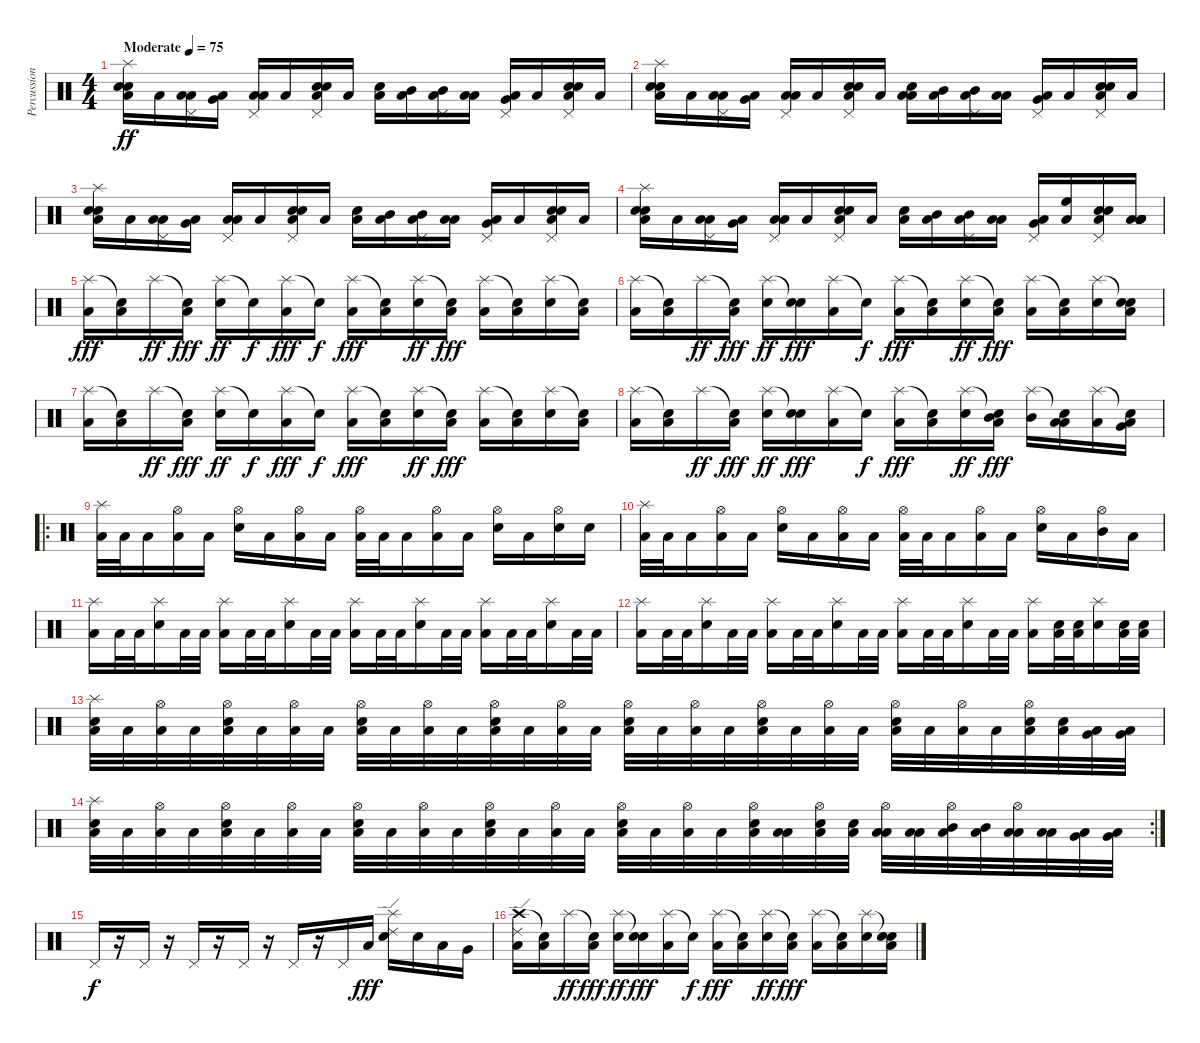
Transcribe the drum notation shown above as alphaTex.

\track ("Percussion" "Percussion") {instrument percussion}
\staff {score}
\articulation defaults
\ts (4 4)
\tempo (75 "Moderate")
\clef neutral
\ks c
("Splash (hit)" "Snare (hit) 2" "Snare (hit) 2" "Low Floor Tom (hit)").16{dy ff} "Low Floor Tom (hit)".16 ("Pedal Hi-Hat (hit)" "Low Tom (hit)" "Low Floor Tom (hit)").16 ("Very Low Tom (hit)" "Low Floor Tom (hit)").16 ("Pedal Hi-Hat (hit)" "Low Tom (hit)" "Low Floor Tom (hit)").16 "Low Floor Tom (hit)".16 ("Pedal Hi-Hat (hit)" "Snare (hit) 2" "Snare (hit) 2" "Low Floor Tom (hit)").16 "Low Floor Tom (hit)".16 ("Snare (hit)" "Low Floor Tom (hit)").16 ("Mid Tom (hit)" "Low Floor Tom (hit)").16 ("Pedal Hi-Hat (hit)" "Mid Tom (hit)" "Low Floor Tom (hit)").16 ("Low Tom (hit)" "Low Floor Tom (hit)").16 ("Pedal Hi-Hat (hit)" "Very Low Tom (hit)" "Low Floor Tom (hit)").16 "Low Floor Tom (hit)".16 ("Pedal Hi-Hat (hit)" "Snare (hit) 2" "Snare (hit) 2" "Low Floor Tom (hit)").16 "Low Floor Tom (hit)".16 |
("Splash (hit)" "Snare (hit) 2" "Snare (hit) 2" "Low Floor Tom (hit)").16 "Low Floor Tom (hit)".16 ("Pedal Hi-Hat (hit)" "Low Tom (hit)" "Low Floor Tom (hit)").16 ("Very Low Tom (hit)" "Low Floor Tom (hit)").16 ("Pedal Hi-Hat (hit)" "Low Tom (hit)" "Low Floor Tom (hit)").16 "Low Floor Tom (hit)".16 ("Pedal Hi-Hat (hit)" "Snare (hit) 2" "Snare (hit) 2" "Low Floor Tom (hit)").16 "Low Floor Tom (hit)".16 ("Snare (hit)" "Low Tom (hit)" "Low Floor Tom (hit)").16 ("Mid Tom (hit)" "Low Floor Tom (hit)").16 ("Pedal Hi-Hat (hit)" "Mid Tom (hit)" "Low Floor Tom (hit)").16 ("Low Tom (hit)" "Low Floor Tom (hit)").16 ("Pedal Hi-Hat (hit)" "Very Low Tom (hit)" "Low Floor Tom (hit)").16 "Low Floor Tom (hit)".16 ("Pedal Hi-Hat (hit)" "Snare (hit) 2" "Snare (hit) 2" "Low Floor Tom (hit)").16 "Low Floor Tom (hit)".16 |
("Splash (hit)" "Snare (hit) 2" "Snare (hit) 2" "Low Floor Tom (hit)").16 "Low Floor Tom (hit)".16 ("Pedal Hi-Hat (hit)" "Low Tom (hit)" "Low Floor Tom (hit)").16 ("Very Low Tom (hit)" "Low Floor Tom (hit)").16 ("Pedal Hi-Hat (hit)" "Low Tom (hit)" "Low Floor Tom (hit)").16 "Low Floor Tom (hit)".16 ("Pedal Hi-Hat (hit)" "Snare (hit) 2" "Snare (hit) 2" "Low Floor Tom (hit)").16 "Low Floor Tom (hit)".16 ("Snare (hit)" "Low Floor Tom (hit)").16 ("Mid Tom (hit)" "Low Floor Tom (hit)").16 ("Pedal Hi-Hat (hit)" "Mid Tom (hit)" "Low Floor Tom (hit)").16 ("Low Tom (hit)" "Low Floor Tom (hit)").16 ("Pedal Hi-Hat (hit)" "Very Low Tom (hit)" "Low Floor Tom (hit)").16 "Low Floor Tom (hit)".16 ("Pedal Hi-Hat (hit)" "Snare (hit) 2" "Snare (hit) 2" "Low Floor Tom (hit)").16 "Low Floor Tom (hit)".16 |
("Splash (hit)" "Snare (hit) 2" "Snare (hit) 2" "Low Floor Tom (hit)").16 "Low Floor Tom (hit)".16 ("Pedal Hi-Hat (hit)" "Low Tom (hit)" "Low Floor Tom (hit)").16 ("Very Low Tom (hit)" "Low Floor Tom (hit)").16 ("Pedal Hi-Hat (hit)" "Low Tom (hit)" "Low Floor Tom (hit)").16 "Low Floor Tom (hit)".16 ("Pedal Hi-Hat (hit)" "Snare (hit) 2" "Snare (hit) 2" "Low Floor Tom (hit)").16 "Low Floor Tom (hit)".16 ("Snare (hit)" "Low Floor Tom (hit)").16 ("Mid Tom (hit)" "Low Floor Tom (hit)").16 ("Pedal Hi-Hat (hit)" "Mid Tom (hit)" "Low Floor Tom (hit)").16 ("Low Tom (hit)" "Low Floor Tom (hit)").16 ("Pedal Hi-Hat (hit)" "Very Low Tom (hit)" "Low Floor Tom (hit)").16 ("High Floor Tom (hit)" "Low Floor Tom (hit)").16 ("Pedal Hi-Hat (hit)" "Snare (hit) 2" "Snare (hit) 2" "Low Floor Tom (hit)").16 ("Low Floor Tom (hit)" "Low Floor Tom (hit)" "Low Floor Tom (hit)" "Low Floor Tom (hit)" "Low Floor Tom (hit)" "Low Floor Tom (hit)").16 |
("Splash (hit)" "Low Floor Tom (hit)").16{dy fff} ("Snare (hit)"{t} "Low Floor Tom (hit)").16 "Splash (hit)".16{dy ff} ("Snare (hit)"{t} "Low Floor Tom (hit)").16{dy fff} ("Splash (hit)" "Snare (hit) 2").16{dy ff} "Snare (hit)"{t}.16{dy f} ("Splash (hit)" "Low Floor Tom (hit)").16{dy fff} "Snare (hit)"{t}.16{dy f} ("Splash (hit)" "Low Floor Tom (hit)").16{dy fff} ("Snare (hit)"{t} "Low Floor Tom (hit)").16 ("Splash (hit)" "Snare (hit) 2").16{dy ff} ("Snare (hit)"{t} "Low Floor Tom (hit)").16{dy fff} ("Splash (hit)" "Low Floor Tom (hit)").16 ("Snare (hit)"{t} "Low Floor Tom (hit)").16 ("Splash (hit)" "Snare (hit) 2").16 ("Snare (hit)"{t} "Low Floor Tom (hit)").16 |
("Splash (hit)" "Low Floor Tom (hit)").16 ("Snare (hit)"{t} "Low Floor Tom (hit)").16 "Splash (hit)".16{dy ff} ("Snare (hit)"{t} "Low Floor Tom (hit)").16{dy fff} ("Splash (hit)" "Snare (hit) 2").16{dy ff} ("Snare (hit)"{t} "Snare (hit) 2").16{dy fff} ("Splash (hit)" "Low Floor Tom (hit)").16 "Snare (hit)"{t}.16{dy f} ("Splash (hit)" "Low Floor Tom (hit)").16{dy fff} ("Snare (hit)"{t} "Low Floor Tom (hit)").16 ("Splash (hit)" "Snare (hit) 2").16{dy ff} ("Snare (hit)"{t} "Low Floor Tom (hit)").16{dy fff} ("Splash (hit)" "Low Tom (hit)").16 ("Snare (hit)"{t} "Low Floor Tom (hit)").16 ("Splash (hit)" "Snare (hit) 2").16 ("Snare (hit)"{t} "Snare (hit) 2" "Low Floor Tom (hit)").16 |
("Splash (hit)" "Low Floor Tom (hit)").16 ("Snare (hit)"{t} "Low Floor Tom (hit)").16 "Splash (hit)".16{dy ff} ("Snare (hit)"{t} "Low Floor Tom (hit)").16{dy fff} ("Splash (hit)" "Snare (hit) 2").16{dy ff} "Snare (hit)"{t}.16{dy f} ("Splash (hit)" "Low Floor Tom (hit)").16{dy fff} "Snare (hit)"{t}.16{dy f} ("Splash (hit)" "Low Floor Tom (hit)").16{dy fff} ("Snare (hit)"{t} "Low Floor Tom (hit)").16 ("Splash (hit)" "Snare (hit) 2").16{dy ff} ("Snare (hit)"{t} "Low Floor Tom (hit)").16{dy fff} ("Splash (hit)" "Low Floor Tom (hit)").16 ("Snare (hit)"{t} "Low Floor Tom (hit)").16 ("Splash (hit)" "Snare (hit) 2").16 ("Snare (hit)"{t} "Low Floor Tom (hit)").16 |
("Splash (hit)" "Low Floor Tom (hit)").16 ("Snare (hit)"{t} "Low Floor Tom (hit)").16 "Splash (hit)".16{dy ff} ("Snare (hit)"{t} "Low Floor Tom (hit)").16{dy fff} ("Splash (hit)" "Snare (hit) 2").16{dy ff} ("Snare (hit)"{t} "Snare (hit) 2").16{dy fff} ("Splash (hit)" "Low Floor Tom (hit)").16 "Snare (hit)"{t}.16{dy f} ("Splash (hit)" "Low Floor Tom (hit)").16{dy fff} ("Snare (hit)"{t} "Low Floor Tom (hit)").16 ("Splash (hit)" "Snare (hit) 2").16{dy ff} ("Snare (hit)"{t} "Mid Tom (hit)" "Low Floor Tom (hit)").16{dy fff} ("Splash (hit)" "Mid Tom (hit)").16 ("Snare (hit)"{t} "Low Tom (hit)" "Low Floor Tom (hit)").16 ("Splash (hit)" "Low Tom (hit)").16 ("Snare (hit)"{t} "Very Low Tom (hit)" "Low Floor Tom (hit)").16 |
\ro
("Splash (hit)" "Low Floor Tom (hit)").32 "Low Floor Tom (hit)".32 "Low Floor Tom (hit)".16 ("Hi-Hat (open)" "Low Floor Tom (hit)").16 "Low Floor Tom (hit)".16 ("Hi-Hat (open)" "Snare (hit) 2").16 "Low Floor Tom (hit)".16 ("Hi-Hat (open)" "Low Floor Tom (hit)").16 "Low Floor Tom (hit)".16 ("Hi-Hat (open)" "Low Floor Tom (hit)").32 "Low Floor Tom (hit)".32 "Low Floor Tom (hit)".16 ("Hi-Hat (open)" "Low Floor Tom (hit)").16 "Low Floor Tom (hit)".16 ("Hi-Hat (open)" "Snare (hit) 2").16 "Low Floor Tom (hit)".16 ("Hi-Hat (open)" "Snare (hit) 2").16 "Snare (hit) 2".16 |
("Splash (hit)" "Low Floor Tom (hit)").32 "Low Floor Tom (hit)".32 "Low Floor Tom (hit)".16 ("Hi-Hat (open)" "Low Floor Tom (hit)").16 "Low Floor Tom (hit)".16 ("Hi-Hat (open)" "Snare (hit) 2").16 "Low Floor Tom (hit)".16 ("Hi-Hat (open)" "Low Floor Tom (hit)").16 "Low Floor Tom (hit)".16 ("Hi-Hat (open)" "Low Floor Tom (hit)").32 "Low Floor Tom (hit)".32 "Low Floor Tom (hit)".16 ("Hi-Hat (open)" "Low Floor Tom (hit)").16 "Low Floor Tom (hit)".16 ("Hi-Hat (open)" "Snare (hit) 2").16 "Low Floor Tom (hit)".16 ("Hi-Hat (open)" "Mid Tom (hit)").16 "Low Tom (hit)".16 |
("Splash (hit)" "Low Floor Tom (hit)").16 "Low Floor Tom (hit)".32 "Low Floor Tom (hit)".32 ("Splash (hit)" "Snare (hit) 2").16 "Low Floor Tom (hit)".32 "Low Floor Tom (hit)".32 ("Splash (hit)" "Low Floor Tom (hit)").16 "Low Floor Tom (hit)".32 "Low Floor Tom (hit)".32 ("Splash (hit)" "Snare (hit) 2").16 "Low Floor Tom (hit)".32 "Low Floor Tom (hit)".32 ("Splash (hit)" "Low Floor Tom (hit)").16 "Low Floor Tom (hit)".32 "Low Floor Tom (hit)".32 ("Splash (hit)" "Snare (hit) 2").16 "Low Floor Tom (hit)".32 "Low Floor Tom (hit)".32 ("Splash (hit)" "Low Floor Tom (hit)").16 "Low Floor Tom (hit)".32 "Low Floor Tom (hit)".32 ("Splash (hit)" "Snare (hit) 2").16 "Low Floor Tom (hit)".32 "Low Floor Tom (hit)".32 |
("Splash (hit)" "Low Floor Tom (hit)").16 "Low Floor Tom (hit)".32 "Low Floor Tom (hit)".32 ("Splash (hit)" "Snare (hit) 2").16 "Low Floor Tom (hit)".32 "Low Floor Tom (hit)".32 ("Splash (hit)" "Low Floor Tom (hit)").16 "Low Floor Tom (hit)".32 "Low Floor Tom (hit)".32 ("Splash (hit)" "Snare (hit) 2").16 "Low Floor Tom (hit)".32 "Low Floor Tom (hit)".32 ("Splash (hit)" "Low Floor Tom (hit)").16 "Low Floor Tom (hit)".32 "Low Floor Tom (hit)".32 ("Splash (hit)" "Snare (hit) 2").16 "Low Floor Tom (hit)".32 "Low Floor Tom (hit)".32 ("Splash (hit)" "Low Floor Tom (hit)").16 ("Snare (hit) 2" "Low Floor Tom (hit)").32 ("Snare (hit) 2" "Low Floor Tom (hit)").32 ("Splash (hit)" "Snare (hit) 2").16 ("Snare (hit) 2" "Low Floor Tom (hit)").32 ("Snare (hit) 2" "Low Floor Tom (hit)").32 |
("Splash (hit)" "Snare (hit) 2" "Low Floor Tom (hit)").32 "Low Floor Tom (hit)".32 ("Hi-Hat (open)" "Low Floor Tom (hit)").32 "Low Floor Tom (hit)".32 ("Hi-Hat (open)" "Snare (hit) 2" "Low Floor Tom (hit)").32 "Low Floor Tom (hit)".32 ("Hi-Hat (open)" "Low Floor Tom (hit)").32 "Low Floor Tom (hit)".32 ("Hi-Hat (open)" "Snare (hit) 2" "Low Floor Tom (hit)").32 "Low Floor Tom (hit)".32 ("Hi-Hat (open)" "Low Floor Tom (hit)").32 "Low Floor Tom (hit)".32 ("Hi-Hat (open)" "Snare (hit) 2" "Low Floor Tom (hit)").32 "Low Floor Tom (hit)".32 ("Hi-Hat (open)" "Low Floor Tom (hit)").32 "Low Floor Tom (hit)".32 ("Hi-Hat (open)" "Snare (hit) 2" "Low Floor Tom (hit)").32 "Low Floor Tom (hit)".32 ("Hi-Hat (open)" "Low Floor Tom (hit)").32 "Low Floor Tom (hit)".32 ("Hi-Hat (open)" "Snare (hit) 2" "Low Floor Tom (hit)").32 "Low Floor Tom (hit)".32 ("Hi-Hat (open)" "Low Floor Tom (hit)").32 "Low Floor Tom (hit)".32 ("Hi-Hat (open)" "Snare (hit) 2" "Low Floor Tom (hit)").32 "Low Floor Tom (hit)".32 ("Hi-Hat (open)" "Low Floor Tom (hit)").32 "Low Floor Tom (hit)".32 ("Hi-Hat (open)" "Snare (hit) 2" "Low Floor Tom (hit)").32 ("Snare (hit) 2" "Low Floor Tom (hit)").32 ("Very Low Tom (hit)" "Low Floor Tom (hit)").32 ("Very Low Tom (hit)" "Low Floor Tom (hit)").32 |
\rc 2
("Splash (hit)" "Snare (hit) 2" "Low Floor Tom (hit)").32 "Low Floor Tom (hit)".32 ("Hi-Hat (open)" "Low Floor Tom (hit)").32 "Low Floor Tom (hit)".32 ("Hi-Hat (open)" "Snare (hit) 2" "Low Floor Tom (hit)").32 "Low Floor Tom (hit)".32 ("Hi-Hat (open)" "Low Floor Tom (hit)").32 "Low Floor Tom (hit)".32 ("Hi-Hat (open)" "Snare (hit) 2" "Low Floor Tom (hit)").32 "Low Floor Tom (hit)".32 ("Hi-Hat (open)" "Low Floor Tom (hit)").32 "Low Floor Tom (hit)".32 ("Hi-Hat (open)" "Snare (hit) 2" "Low Floor Tom (hit)").32 "Low Floor Tom (hit)".32 ("Hi-Hat (open)" "Low Floor Tom (hit)").32 "Low Floor Tom (hit)".32 ("Hi-Hat (open)" "Snare (hit) 2" "Low Floor Tom (hit)").32 "Low Floor Tom (hit)".32 ("Hi-Hat (open)" "Low Floor Tom (hit)").32 "Low Floor Tom (hit)".32 ("Hi-Hat (open)" "Snare (hit) 2" "Low Floor Tom (hit)").32 ("Low Tom (hit)" "Low Floor Tom (hit)").32 ("Hi-Hat (open)" "Snare (hit) 2" "Low Floor Tom (hit)").32 ("Snare (hit) 2" "Low Floor Tom (hit)").32 ("Hi-Hat (open)" "Low Tom (hit)" "Low Floor Tom (hit)").32 ("Low Tom (hit)" "Low Floor Tom (hit)").32 ("Hi-Hat (open)" "Mid Tom (hit)" "Low Floor Tom (hit)").32 ("Mid Tom (hit)" "Low Floor Tom (hit)").32 ("Hi-Hat (open)" "Low Tom (hit)" "Low Floor Tom (hit)").32 ("Low Tom (hit)" "Low Floor Tom (hit)").32 ("Very Low Tom (hit)" "Low Floor Tom (hit)").32 ("Very Low Tom (hit)" "Low Floor Tom (hit)").32 |
"Pedal Hi-Hat (hit)".16{dy f} r.16 "Pedal Hi-Hat (hit)".16 r.16 "Pedal Hi-Hat (hit)".16 r.16 "Pedal Hi-Hat (hit)".16 r.16 "Pedal Hi-Hat (hit)".16 r.16 "Pedal Hi-Hat (hit)".16 "Low Floor Tom (hit)".16{dy fff} ("Splash (hit)" "Ride (edge) 2" "Snare (hit) 2").16 "Snare (hit) 2".16 "Low Tom (hit)".16 "Very Low Tom (hit)".16 |
("Crash high (hit)" "Ride (edge) 2" "Low Floor Tom (hit)").16 ("Snare (hit)"{t} "Low Floor Tom (hit)").16 "Splash (hit)".16{dy ff} ("Snare (hit)"{t} "Low Floor Tom (hit)").16{dy fff} ("Splash (hit)" "Snare (hit) 2").16{dy ff} ("Snare (hit)"{t} "Snare (hit) 2").16{dy fff} ("Splash (hit)" "Low Floor Tom (hit)").16 "Snare (hit)"{t}.16{dy f} ("Splash (hit)" "Low Floor Tom (hit)").16{dy fff} ("Snare (hit)"{t} "Low Floor Tom (hit)").16 ("Splash (hit)" "Snare (hit) 2").16{dy ff} ("Snare (hit)"{t} "Low Floor Tom (hit)").16{dy fff} ("Splash (hit)" "Low Tom (hit)").16 ("Snare (hit)"{t} "Low Floor Tom (hit)").16 ("Splash (hit)" "Snare (hit) 2").16 ("Snare (hit)"{t} "Snare (hit) 2" "Low Floor Tom (hit)").16
